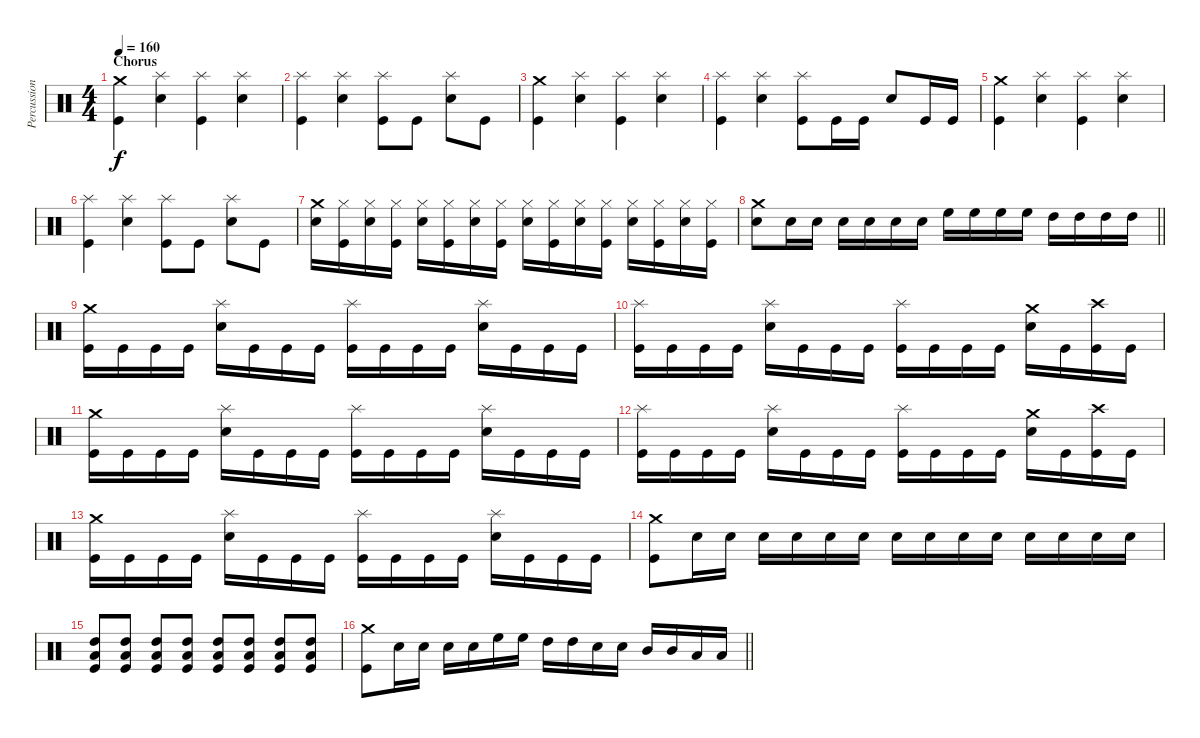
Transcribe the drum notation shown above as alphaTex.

\track ("Percussion" "Percussion") {instrument percussion}
\staff {score}
\articulation defaults
\ts (4 4)
\section ("" "Chorus")
\tempo 160
\clef neutral
\ks c
("Crash medium (hit)" "Kick (hit)").4{dy f} ("Splash (hit)" "Snare (hit) 2").4 ("Splash (hit)" "Kick (hit)").4 ("Splash (hit)" "Snare (hit) 2").4 |
("Splash (hit)" "Kick (hit)").4 ("Splash (hit)" "Snare (hit) 2").4 ("Splash (hit)" "Kick (hit)").8 "Kick (hit)".8 ("Splash (hit)" "Snare (hit) 2").8 "Kick (hit)".8 |
("Crash medium (hit)" "Kick (hit)").4 ("Splash (hit)" "Snare (hit) 2").4 ("Splash (hit)" "Kick (hit)").4 ("Splash (hit)" "Snare (hit) 2").4 |
("Splash (hit)" "Kick (hit)").4 ("Splash (hit)" "Snare (hit) 2").4 ("Splash (hit)" "Kick (hit)").8 "Kick (hit)".16 "Kick (hit)".16 "Snare (hit) 2".8 "Kick (hit)".16 "Kick (hit)".16 |
("Crash medium (hit)" "Kick (hit)").4 ("Splash (hit)" "Snare (hit) 2").4 ("Splash (hit)" "Kick (hit)").4 ("Splash (hit)" "Snare (hit) 2").4 |
("Splash (hit)" "Kick (hit)").4 ("Splash (hit)" "Snare (hit) 2").4 ("Splash (hit)" "Kick (hit)").8 "Kick (hit)".8 ("Splash (hit)" "Snare (hit) 2").8 "Kick (hit)".8 |
("Crash medium (hit)" "Snare (hit) 2").16 ("Hi-Hat (closed)" "Kick (hit)").16 ("Hi-Hat (closed)" "Snare (hit) 2").16 ("Hi-Hat (closed)" "Kick (hit)").16 ("Hi-Hat (closed)" "Snare (hit) 2").16 ("Hi-Hat (closed)" "Kick (hit)").16 ("Hi-Hat (closed)" "Snare (hit) 2").16 ("Hi-Hat (closed)" "Kick (hit)").16 ("Hi-Hat (closed)" "Snare (hit) 2").16 ("Hi-Hat (closed)" "Kick (hit)").16 ("Hi-Hat (closed)" "Snare (hit) 2").16 ("Hi-Hat (closed)" "Kick (hit)").16 ("Hi-Hat (closed)" "Snare (hit) 2").16 ("Hi-Hat (closed)" "Kick (hit)").16 ("Hi-Hat (closed)" "Snare (hit) 2").16 ("Hi-Hat (closed)" "Kick (hit)").16 |
\barLineRight lightlight
("Crash medium (hit)" "Snare (hit) 2").8 "Snare (hit) 2".16 "Snare (hit) 2".16 "Snare (hit) 2".16 "Snare (hit) 2".16 "Snare (hit) 2".16 "Snare (hit) 2".16 "High Floor Tom (hit)".16 "High Floor Tom (hit)".16 "High Floor Tom (hit)".16 "High Floor Tom (hit)".16 "High Tom (hit)".16 "High Tom (hit)".16 "High Tom (hit)".16 "High Tom (hit)".16 |
("Crash medium (hit)" "Kick (hit)").16 "Kick (hit)".16 "Kick (hit)".16 "Kick (hit)".16 ("Splash (hit)" "Snare (hit) 2").16 "Kick (hit)".16 "Kick (hit)".16 "Kick (hit)".16 ("Splash (hit)" "Kick (hit)").16 "Kick (hit)".16 "Kick (hit)".16 "Kick (hit)".16 ("Splash (hit)" "Snare (hit) 2").16 "Kick (hit)".16 "Kick (hit)".16 "Kick (hit)".16 |
("Splash (hit)" "Kick (hit)").16 "Kick (hit)".16 "Kick (hit)".16 "Kick (hit)".16 ("Splash (hit)" "Snare (hit) 2").16 "Kick (hit)".16 "Kick (hit)".16 "Kick (hit)".16 ("Splash (hit)" "Kick (hit)").16 "Kick (hit)".16 "Kick (hit)".16 "Kick (hit)".16 ("Crash medium (hit)" "Snare (hit) 2").16 "Kick (hit)".16 ("Crash high (hit)" "Kick (hit)").16 "Kick (hit)".16 |
("Crash medium (hit)" "Kick (hit)").16 "Kick (hit)".16 "Kick (hit)".16 "Kick (hit)".16 ("Splash (hit)" "Snare (hit) 2").16 "Kick (hit)".16 "Kick (hit)".16 "Kick (hit)".16 ("Splash (hit)" "Kick (hit)").16 "Kick (hit)".16 "Kick (hit)".16 "Kick (hit)".16 ("Splash (hit)" "Snare (hit) 2").16 "Kick (hit)".16 "Kick (hit)".16 "Kick (hit)".16 |
("Splash (hit)" "Kick (hit)").16 "Kick (hit)".16 "Kick (hit)".16 "Kick (hit)".16 ("Splash (hit)" "Snare (hit) 2").16 "Kick (hit)".16 "Kick (hit)".16 "Kick (hit)".16 ("Splash (hit)" "Kick (hit)").16 "Kick (hit)".16 "Kick (hit)".16 "Kick (hit)".16 ("Crash medium (hit)" "Snare (hit) 2").16 "Kick (hit)".16 ("Crash high (hit)" "Kick (hit)").16 "Kick (hit)".16 |
("Crash medium (hit)" "Kick (hit)").16 "Kick (hit)".16 "Kick (hit)".16 "Kick (hit)".16 ("Splash (hit)" "Snare (hit) 2").16 "Kick (hit)".16 "Kick (hit)".16 "Kick (hit)".16 ("Splash (hit)" "Kick (hit)").16 "Kick (hit)".16 "Kick (hit)".16 "Kick (hit)".16 ("Splash (hit)" "Snare (hit) 2").16 "Kick (hit)".16 "Kick (hit)".16 "Kick (hit)".16 |
("Crash medium (hit)" "Kick (hit)").8 "Snare (hit) 2".16 "Snare (hit) 2".16 "Snare (hit) 2".16 "Snare (hit) 2".16 "Snare (hit) 2".16 "Snare (hit) 2".16 "Snare (hit) 2".16 "Snare (hit) 2".16 "Snare (hit) 2".16 "Snare (hit) 2".16 "Snare (hit) 2".16 "Snare (hit) 2".16 "Snare (hit) 2".16 "Snare (hit) 2".16 |
("High Tom (hit)" "Low Tom (hit)" "Kick (hit)").8 ("High Tom (hit)" "Low Tom (hit)" "Kick (hit)").8 ("High Tom (hit)" "Low Tom (hit)" "Kick (hit)").8 ("High Tom (hit)" "Low Tom (hit)" "Kick (hit)").8 ("High Tom (hit)" "Low Tom (hit)" "Kick (hit)").8 ("High Tom (hit)" "Low Tom (hit)" "Kick (hit)").8 ("High Tom (hit)" "Low Tom (hit)" "Kick (hit)").8 ("High Tom (hit)" "Low Tom (hit)" "Kick (hit)").8 |
\barLineRight lightlight
("Crash medium (hit)" "Kick (hit)").8 "Snare (hit) 2".16 "Snare (hit) 2".16 "Snare (hit) 2".16 "Snare (hit) 2".16 "High Floor Tom (hit)".16 "High Floor Tom (hit)".16 "High Tom (hit)".16 "High Tom (hit)".16 "Snare (hit) 2".16 "Snare (hit) 2".16 "Mid Tom (hit)".16 "Mid Tom (hit)".16 "Low Tom (hit)".16 "Low Tom (hit)".16
